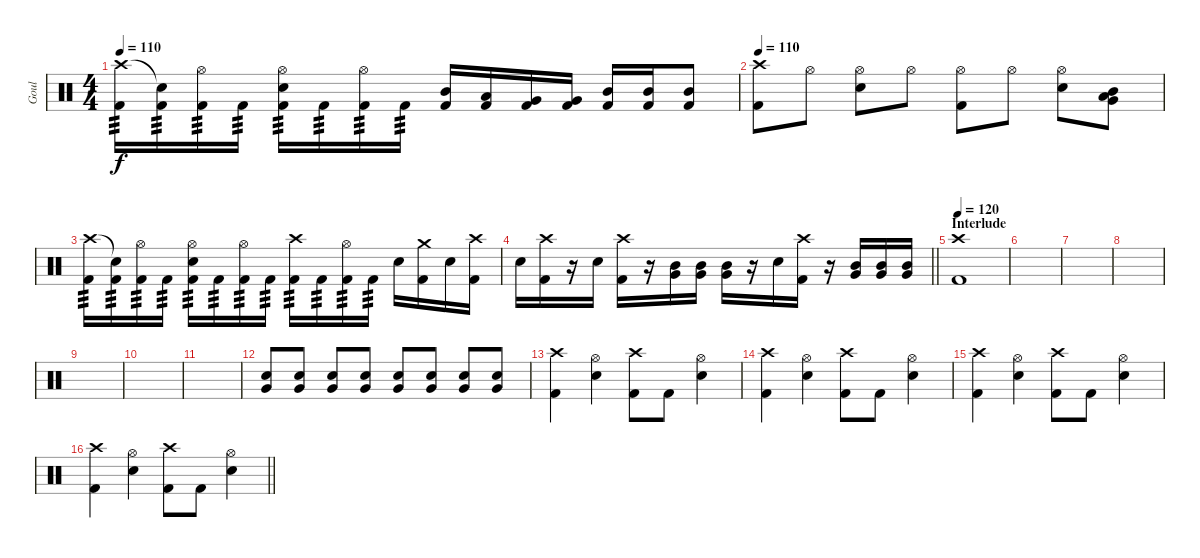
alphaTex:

\track ("Goul" "Goul") {instrument percussion}
\staff {score}
\articulation defaults
\ts (4 4)
\tempo 110
\clef neutral
\ks c
("Crash high (hit)" "Kick (hit) 2").16{tp 3 dy f} ("Snare (hit)"{t} "Kick (hit) 2").16{tp 3} ("Hi-Hat (open)" "Kick (hit) 2").16{tp 3} "Kick (hit) 2".16{tp 3} ("Hi-Hat (open)" "Electric Snare (hit)" "Kick (hit) 2").16{tp 3} "Kick (hit) 2".16{tp 3} ("Hi-Hat (open)" "Kick (hit) 2").16{tp 3} "Kick (hit) 2".16{tp 3} ("Mid Tom (hit)" "Kick (hit) 2").16 ("Low Tom (hit)" "Kick (hit) 2").16 ("Very Low Tom (hit)" "Kick (hit) 2").16 ("Very Low Tom (hit)" "Kick (hit) 2").16 ("Mid Tom (hit)" "Kick (hit) 2").16 ("Mid Tom (hit)" "Kick (hit) 2").16 ("Mid Tom (hit)" "Kick (hit) 2").8 |
\tempo 110
("Crash high (hit)" "Kick (hit) 2").8 "Hi-Hat (open)".8 ("Hi-Hat (open)" "Electric Snare (hit)").8 "Hi-Hat (open)".8 ("Hi-Hat (open)" "Kick (hit) 2").8 "Hi-Hat (open)".8 ("Hi-Hat (open)" "Electric Snare (hit)").8 ("Mid Tom (hit)" "Low Tom (hit)" "Very Low Tom (hit)").8 |
("Crash high (hit)" "Kick (hit) 2").16{tp 3} ("Snare (hit)"{t} "Kick (hit) 2").16{tp 3} ("Hi-Hat (open)" "Kick (hit) 2").16{tp 3} "Kick (hit) 2".16{tp 3} ("Hi-Hat (open)" "Electric Snare (hit)" "Kick (hit) 2").16{tp 3} "Kick (hit) 2".16{tp 3} ("Hi-Hat (open)" "Kick (hit) 2").16{tp 3} "Kick (hit) 2".16{tp 3} ("Crash high (hit)" "Kick (hit) 2").16{tp 3} "Kick (hit) 2".16{tp 3} ("Hi-Hat (open)" "Kick (hit) 2").16{tp 3} "Kick (hit) 2".16{tp 3} "Electric Snare (hit)".16 ("Crash medium (hit)" "Kick (hit) 2").16 "Electric Snare (hit)".16 ("Crash high (hit)" "Kick (hit) 2").16 |
\barLineRight lightlight "Electric Snare (hit)".16
("Crash high (hit)" "Kick (hit) 2").16 r.16 "Electric Snare (hit)".16 ("Crash high (hit)" "Kick (hit) 2").16 r.16 ("Mid Tom (hit)" "Very Low Tom (hit)").16 ("Mid Tom (hit)" "Very Low Tom (hit)").16 ("Mid Tom (hit)" "Very Low Tom (hit)").16 r.16 "Electric Snare (hit)".16 ("Crash high (hit)" "Kick (hit) 2").16 r.16 ("Mid Tom (hit)" "Very Low Tom (hit)").16 ("Mid Tom (hit)" "Very Low Tom (hit)").16 ("Mid Tom (hit)" "Very Low Tom (hit)").16 |
\section ("" "Interlude")
\tempo 120
("Crash high (hit)" "Kick (hit) 2").1 |
|
|
|
|
|
|
("Very Low Tom (hit)" "Electric Snare (hit)").8{volume 0} ("Very Low Tom (hit)" "Electric Snare (hit)").8{volume 3} ("Very Low Tom (hit)" "Electric Snare (hit)").8{volume 5} ("Very Low Tom (hit)" "Electric Snare (hit)").8{volume 8} ("Very Low Tom (hit)" "Electric Snare (hit)").8{volume 10} ("Very Low Tom (hit)" "Electric Snare (hit)").8{volume 13} ("Very Low Tom (hit)" "Electric Snare (hit)").8 ("Very Low Tom (hit)" "Electric Snare (hit)").8 |
("Crash high (hit)" "Kick (hit) 2").4 ("Hi-Hat (open)" "Electric Snare (hit)").4 ("Crash high (hit)" "Kick (hit) 2").8 "Kick (hit) 2".8 ("Hi-Hat (open)" "Electric Snare (hit)").4 |
("Crash high (hit)" "Kick (hit) 2").4 ("Hi-Hat (open)" "Electric Snare (hit)").4 ("Crash high (hit)" "Kick (hit) 2").8 "Kick (hit) 2".8 ("Hi-Hat (open)" "Electric Snare (hit)").4 |
("Crash high (hit)" "Kick (hit) 2").4 ("Hi-Hat (open)" "Electric Snare (hit)").4 ("Crash high (hit)" "Kick (hit) 2").8 "Kick (hit) 2".8 ("Hi-Hat (open)" "Electric Snare (hit)").4 |
\barLineRight lightlight
("Crash high (hit)" "Kick (hit) 2").4 ("Hi-Hat (open)" "Electric Snare (hit)").4 ("Crash high (hit)" "Kick (hit) 2").8 "Kick (hit) 2".8 ("Hi-Hat (open)" "Electric Snare (hit)").4
